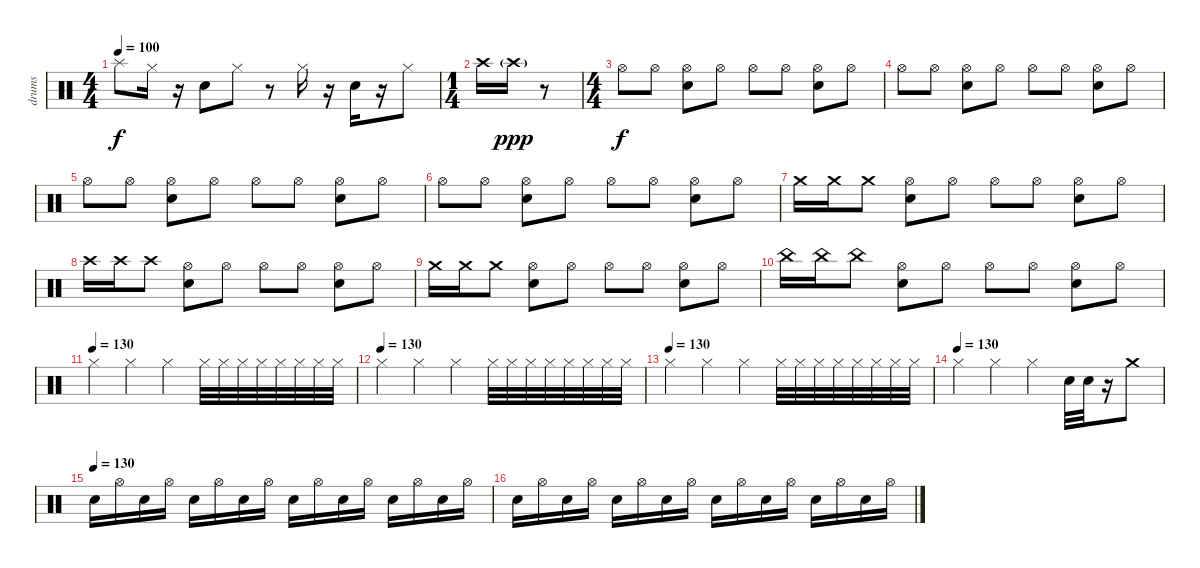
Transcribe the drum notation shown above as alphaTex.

\track ("drums" "drums") {instrument percussion}
\staff {score}
\articulation defaults
\ts (4 4)
\tempo 100
\clef neutral
\ks c "Splash (hit)".8{dy f} "Hi-Hat (closed)".16
r.16 "Snare (hit) 2".8 "Hi-Hat (closed)".8 r.8 "Hi-Hat (closed)".16 r.16 "Snare (hit) 2".16 r.16 "Hi-Hat (closed)".8 |
\ts (1 4)
"Crash high (hit)".16 "Crash high (hit)"{g}.16{dy ppp} r.8 |
\ts (4 4)
"Hi-Hat (open)".8{dy f} "Hi-Hat (open)".8 ("Snare (hit) 2" "Hi-Hat (open)").8 "Hi-Hat (open)".8 "Hi-Hat (open)".8 "Hi-Hat (open)".8 ("Snare (hit) 2" "Hi-Hat (open)").8 "Hi-Hat (open)".8 |
"Hi-Hat (open)".8 "Hi-Hat (open)".8 ("Snare (hit) 2" "Hi-Hat (open)").8 "Hi-Hat (open)".8 "Hi-Hat (open)".8 "Hi-Hat (open)".8 ("Snare (hit) 2" "Hi-Hat (open)").8 "Hi-Hat (open)".8 |
"Hi-Hat (open)".8 "Hi-Hat (open)".8 ("Snare (hit) 2" "Hi-Hat (open)").8 "Hi-Hat (open)".8 "Hi-Hat (open)".8 "Hi-Hat (open)".8 ("Snare (hit) 2" "Hi-Hat (open)").8 "Hi-Hat (open)".8 |
"Hi-Hat (open)".8 "Hi-Hat (open)".8 ("Snare (hit) 2" "Hi-Hat (open)").8 "Hi-Hat (open)".8 "Hi-Hat (open)".8 "Hi-Hat (open)".8 ("Snare (hit) 2" "Hi-Hat (open)").8 "Hi-Hat (open)".8 |
"Crash medium (hit)".16 "Crash medium (hit)".16 "Crash medium (hit)".8 ("Snare (hit) 2" "Hi-Hat (open)").8 "Hi-Hat (open)".8 "Hi-Hat (open)".8 "Hi-Hat (open)".8 ("Snare (hit) 2" "Hi-Hat (open)").8 "Hi-Hat (open)".8 |
"Crash high (hit)".16 "Crash high (hit)".16 "Crash high (hit)".8 ("Snare (hit) 2" "Hi-Hat (open)").8 "Hi-Hat (open)".8 "Hi-Hat (open)".8 "Hi-Hat (open)".8 ("Snare (hit) 2" "Hi-Hat (open)").8 "Hi-Hat (open)".8 |
"Crash medium (hit)".16 "Crash medium (hit)".16 "Crash medium (hit)".8 ("Snare (hit) 2" "Hi-Hat (open)").8 "Hi-Hat (open)".8 "Hi-Hat (open)".8 "Hi-Hat (open)".8 ("Snare (hit) 2" "Hi-Hat (open)").8 "Hi-Hat (open)".8 |
"China (hit)".16 "China (hit)".16 "China (hit)".8 ("Snare (hit) 2" "Hi-Hat (open)").8 "Hi-Hat (open)".8 "Hi-Hat (open)".8 "Hi-Hat (open)".8 ("Snare (hit) 2" "Hi-Hat (open)").8 "Hi-Hat (open)".8 |
\tempo (130)
"Hi-Hat (closed)".4 "Hi-Hat (closed)".4 "Hi-Hat (closed)".4 "Hi-Hat (closed)".32 "Hi-Hat (closed)".32 "Hi-Hat (closed)".32 "Hi-Hat (closed)".32 "Hi-Hat (closed)".32 "Hi-Hat (closed)".32 "Hi-Hat (closed)".32 "Hi-Hat (closed)".32 |
\tempo (130)
"Hi-Hat (closed)".4 "Hi-Hat (closed)".4 "Hi-Hat (closed)".4 "Hi-Hat (closed)".32 "Hi-Hat (closed)".32 "Hi-Hat (closed)".32 "Hi-Hat (closed)".32 "Hi-Hat (closed)".32 "Hi-Hat (closed)".32 "Hi-Hat (closed)".32 "Hi-Hat (closed)".32 |
\tempo (130)
"Hi-Hat (closed)".4 "Hi-Hat (closed)".4 "Hi-Hat (closed)".4 "Hi-Hat (closed)".32 "Hi-Hat (closed)".32 "Hi-Hat (closed)".32 "Hi-Hat (closed)".32 "Hi-Hat (closed)".32 "Hi-Hat (closed)".32 "Hi-Hat (closed)".32 "Hi-Hat (closed)".32 |
\tempo (130)
"Hi-Hat (closed)".4 "Hi-Hat (closed)".4 "Hi-Hat (closed)".4 "Snare (hit) 2".32 "Snare (hit) 2".32 r.16 "Crash medium (hit)".8 |
\tempo (130)
"Snare (hit) 2".16 "Hi-Hat (open)".16 "Snare (hit) 2".16 "Hi-Hat (open)".16 "Snare (hit) 2".16 "Hi-Hat (open)".16 "Snare (hit) 2".16 "Hi-Hat (open)".16 "Snare (hit) 2".16 "Hi-Hat (open)".16 "Snare (hit) 2".16 "Hi-Hat (open)".16 "Snare (hit) 2".16 "Hi-Hat (open)".16 "Snare (hit) 2".16 "Hi-Hat (open)".16 |
"Snare (hit) 2".16 "Hi-Hat (open)".16 "Snare (hit) 2".16 "Hi-Hat (open)".16 "Snare (hit) 2".16 "Hi-Hat (open)".16 "Snare (hit) 2".16 "Hi-Hat (open)".16 "Snare (hit) 2".16 "Hi-Hat (open)".16 "Snare (hit) 2".16 "Hi-Hat (open)".16 "Snare (hit) 2".16 "Hi-Hat (open)".16 "Snare (hit) 2".16 "Hi-Hat (open)".16
